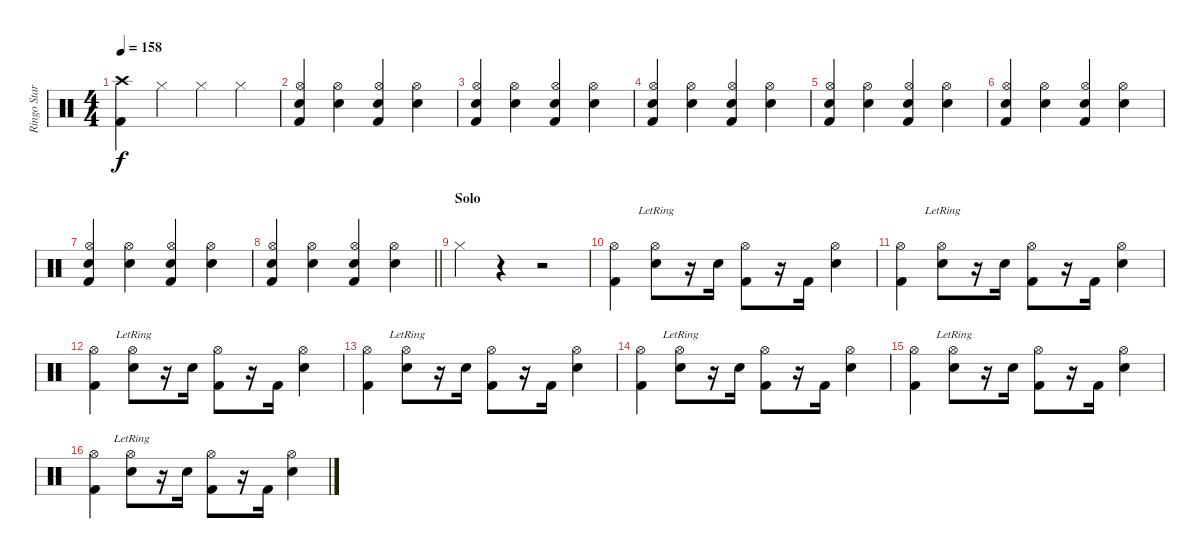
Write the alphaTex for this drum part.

\track ("Ringo Star" "Ringo Star") {instrument percussion}
\staff {score}
\articulation defaults
\ts (4 4)
\tempo 158
\clef neutral
\ks c
("Crash high (hit)" "Kick (hit) 2").4{dy f} "Hi-Hat (closed)".4 "Hi-Hat (closed)".4 "Hi-Hat (closed)".4 |
("Hi-Hat (open)" "Snare (hit) 2" "Kick (hit) 2").4 ("Hi-Hat (open)" "Snare (hit) 2").4 ("Hi-Hat (open)" "Snare (hit) 2" "Kick (hit) 2").4 ("Hi-Hat (open)" "Snare (hit) 2").4 |
("Hi-Hat (open)" "Snare (hit) 2" "Kick (hit) 2").4 ("Hi-Hat (open)" "Snare (hit) 2").4 ("Hi-Hat (open)" "Snare (hit) 2" "Kick (hit) 2").4 ("Hi-Hat (open)" "Snare (hit) 2").4 |
("Hi-Hat (open)" "Snare (hit) 2" "Kick (hit) 2").4 ("Hi-Hat (open)" "Snare (hit) 2").4 ("Hi-Hat (open)" "Snare (hit) 2" "Kick (hit) 2").4 ("Hi-Hat (open)" "Snare (hit) 2").4 |
("Hi-Hat (open)" "Snare (hit) 2" "Kick (hit) 2").4 ("Hi-Hat (open)" "Snare (hit) 2").4 ("Hi-Hat (open)" "Snare (hit) 2" "Kick (hit) 2").4 ("Hi-Hat (open)" "Snare (hit) 2").4 |
("Hi-Hat (open)" "Snare (hit) 2" "Kick (hit) 2").4 ("Hi-Hat (open)" "Snare (hit) 2").4 ("Hi-Hat (open)" "Snare (hit) 2" "Kick (hit) 2").4 ("Hi-Hat (open)" "Snare (hit) 2").4 |
("Hi-Hat (open)" "Snare (hit) 2" "Kick (hit) 2").4 ("Hi-Hat (open)" "Snare (hit) 2").4 ("Hi-Hat (open)" "Snare (hit) 2" "Kick (hit) 2").4 ("Hi-Hat (open)" "Snare (hit) 2").4 |
\barLineRight lightlight
("Hi-Hat (open)" "Snare (hit) 2" "Kick (hit) 2").4 ("Hi-Hat (open)" "Snare (hit) 2").4 ("Hi-Hat (open)" "Snare (hit) 2" "Kick (hit) 2").4 ("Hi-Hat (open)" "Snare (hit) 2").4 |
\section ("" "Solo")
"Hi-Hat (closed)".4 r.4 r.2 |
("Hi-Hat (open)" "Kick (hit) 2").4 ("Hi-Hat (open)"{lr} "Snare (hit) 2").8 r.16 "Snare (hit) 2".16 ("Hi-Hat (open)" "Kick (hit) 2").8 r.16 "Kick (hit) 2".16 ("Hi-Hat (open)" "Snare (hit) 2").4 |
("Hi-Hat (open)" "Kick (hit) 2").4 ("Hi-Hat (open)"{lr} "Snare (hit) 2").8 r.16 "Snare (hit) 2".16 ("Hi-Hat (open)" "Kick (hit) 2").8 r.16 "Kick (hit) 2".16 ("Hi-Hat (open)" "Snare (hit) 2").4 |
("Hi-Hat (open)" "Kick (hit) 2").4 ("Hi-Hat (open)"{lr} "Snare (hit) 2").8 r.16 "Snare (hit) 2".16 ("Hi-Hat (open)" "Kick (hit) 2").8 r.16 "Kick (hit) 2".16 ("Hi-Hat (open)" "Snare (hit) 2").4 |
("Hi-Hat (open)" "Kick (hit) 2").4 ("Hi-Hat (open)"{lr} "Snare (hit) 2").8 r.16 "Snare (hit) 2".16 ("Hi-Hat (open)" "Kick (hit) 2").8 r.16 "Kick (hit) 2".16 ("Hi-Hat (open)" "Snare (hit) 2").4 |
("Hi-Hat (open)" "Kick (hit) 2").4 ("Hi-Hat (open)"{lr} "Snare (hit) 2").8 r.16 "Snare (hit) 2".16 ("Hi-Hat (open)" "Kick (hit) 2").8 r.16 "Kick (hit) 2".16 ("Hi-Hat (open)" "Snare (hit) 2").4 |
("Hi-Hat (open)" "Kick (hit) 2").4 ("Hi-Hat (open)"{lr} "Snare (hit) 2").8 r.16 "Snare (hit) 2".16 ("Hi-Hat (open)" "Kick (hit) 2").8 r.16 "Kick (hit) 2".16 ("Hi-Hat (open)" "Snare (hit) 2").4 |
("Hi-Hat (open)" "Kick (hit) 2").4 ("Hi-Hat (open)"{lr} "Snare (hit) 2").8 r.16 "Snare (hit) 2".16 ("Hi-Hat (open)" "Kick (hit) 2").8 r.16 "Kick (hit) 2".16 ("Hi-Hat (open)" "Snare (hit) 2").4
